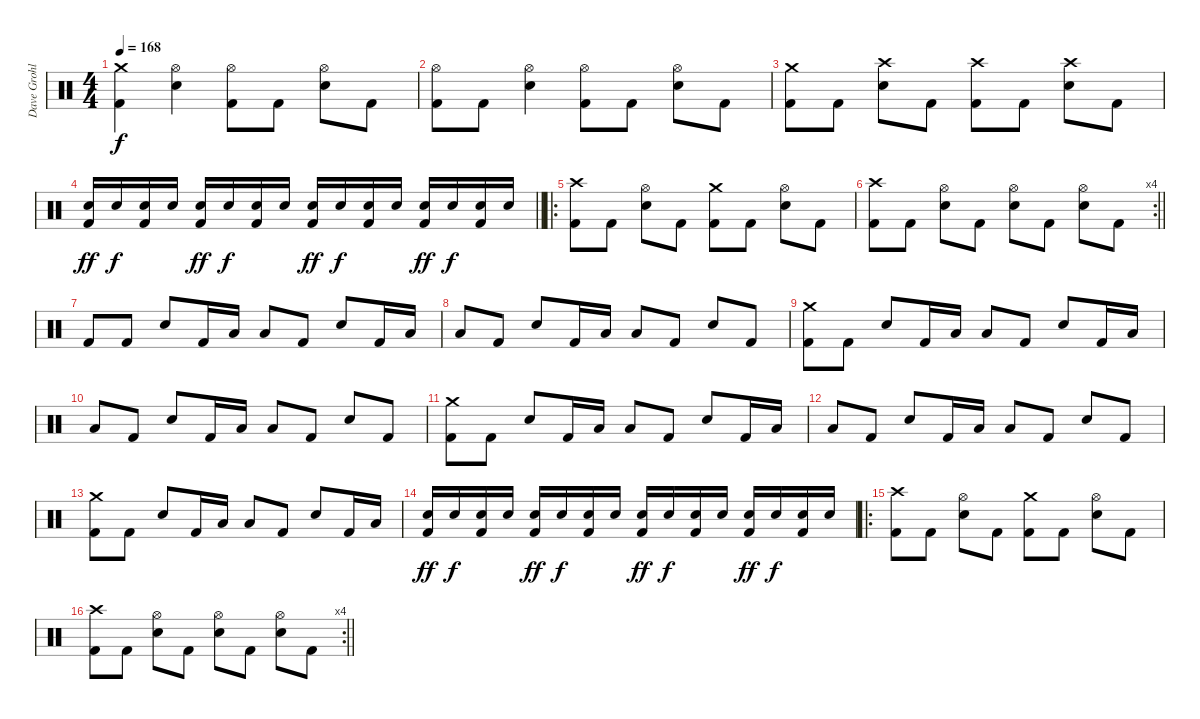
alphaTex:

\track ("Dave Grohl - Drums" "Dave Grohl") {instrument percussion}
\staff {score}
\articulation defaults
\ts (4 4)
\tempo 168
\clef neutral
\ks c
("Crash medium (hit)" "Kick (hit) 2").4{dy f} ("Hi-Hat (open)" "Electric Snare (hit)").4 ("Hi-Hat (open)" "Kick (hit) 2").8 "Kick (hit) 2".8 ("Hi-Hat (open)" "Electric Snare (hit)").8 "Kick (hit) 2".8 |
("Hi-Hat (open)" "Kick (hit) 2").8 "Kick (hit) 2".8 ("Hi-Hat (open)" "Electric Snare (hit)").4 ("Hi-Hat (open)" "Kick (hit) 2").8 "Kick (hit) 2".8 ("Hi-Hat (open)" "Electric Snare (hit)").8 "Kick (hit) 2".8 |
("Crash medium (hit)" "Kick (hit) 2").8 "Kick (hit) 2".8 ("Crash high (hit)" "Electric Snare (hit)").8 "Kick (hit) 2".8 ("Crash high (hit)" "Kick (hit) 2").8 "Kick (hit) 2".8 ("Crash high (hit)" "Electric Snare (hit)").8 "Kick (hit) 2".8 |
\barLineRight lightlight
("Electric Snare (hit)" "Kick (hit) 2").16{dy ff volume 12} "Electric Snare (hit)".16{dy f} ("Electric Snare (hit)" "Kick (hit) 2").16 "Electric Snare (hit)".16 ("Electric Snare (hit)" "Kick (hit) 2").16{dy ff} "Electric Snare (hit)".16{dy f} ("Electric Snare (hit)" "Kick (hit) 2").16 "Electric Snare (hit)".16 ("Electric Snare (hit)" "Kick (hit) 2").16{dy ff} "Electric Snare (hit)".16{dy f} ("Electric Snare (hit)" "Kick (hit) 2").16 "Electric Snare (hit)".16 ("Electric Snare (hit)" "Kick (hit) 2").16{dy ff} "Electric Snare (hit)".16{dy f} ("Electric Snare (hit)" "Kick (hit) 2").16 "Electric Snare (hit)".16 |
\ro
("Crash high (hit)" "Kick (hit) 2").8{volume 13} "Kick (hit) 2".8 ("Hi-Hat (open)" "Electric Snare (hit)").8 "Kick (hit) 2".8 ("Crash medium (hit)" "Kick (hit) 2").8 "Kick (hit) 2".8 ("Hi-Hat (open)" "Electric Snare (hit)").8 "Kick (hit) 2".8 |
\rc 4
\barLineRight lightlight
("Crash high (hit)" "Kick (hit) 2").8{volume 13} "Kick (hit) 2".8 ("Hi-Hat (open)" "Electric Snare (hit)").8 "Kick (hit) 2".8 ("Hi-Hat (open)" "Electric Snare (hit)").8 "Kick (hit) 2".8 ("Hi-Hat (open)" "Electric Snare (hit)").8 "Kick (hit) 2".8 |
"Kick (hit) 2".8 "Kick (hit) 2".8 "Electric Snare (hit)".8 "Kick (hit) 2".16 "Low Floor Tom (hit)".16 "Low Tom (hit)".8 "Kick (hit) 2".8 "Electric Snare (hit)".8 "Kick (hit) 2".16 "Low Floor Tom (hit)".16 |
"Low Tom (hit)".8 "Kick (hit) 2".8 "Electric Snare (hit)".8 "Kick (hit) 2".16 "Low Floor Tom (hit)".16 "Low Tom (hit)".8 "Kick (hit) 2".8 "Electric Snare (hit)".8 "Kick (hit) 2".8 |
("Crash medium (hit)" "Kick (hit) 2").8 "Kick (hit) 2".8 "Electric Snare (hit)".8 "Kick (hit) 2".16 "Low Floor Tom (hit)".16 "Low Tom (hit)".8 "Kick (hit) 2".8 "Electric Snare (hit)".8 "Kick (hit) 2".16 "Low Floor Tom (hit)".16 |
"Low Tom (hit)".8 "Kick (hit) 2".8 "Electric Snare (hit)".8 "Kick (hit) 2".16 "Low Floor Tom (hit)".16 "Low Tom (hit)".8 "Kick (hit) 2".8 "Electric Snare (hit)".8 "Kick (hit) 2".8 |
("Crash medium (hit)" "Kick (hit) 2").8 "Kick (hit) 2".8 "Electric Snare (hit)".8 "Kick (hit) 2".16 "Low Floor Tom (hit)".16 "Low Tom (hit)".8 "Kick (hit) 2".8 "Electric Snare (hit)".8 "Kick (hit) 2".16 "Low Floor Tom (hit)".16 |
"Low Tom (hit)".8 "Kick (hit) 2".8 "Electric Snare (hit)".8 "Kick (hit) 2".16 "Low Floor Tom (hit)".16 "Low Tom (hit)".8 "Kick (hit) 2".8 "Electric Snare (hit)".8 "Kick (hit) 2".8 |
("Crash medium (hit)" "Kick (hit) 2").8 "Kick (hit) 2".8 "Electric Snare (hit)".8 "Kick (hit) 2".16 "Low Floor Tom (hit)".16 "Low Tom (hit)".8 "Kick (hit) 2".8 "Electric Snare (hit)".8 "Kick (hit) 2".16 "Low Floor Tom (hit)".16 |
("Electric Snare (hit)" "Kick (hit) 2").16{dy ff volume 12} "Electric Snare (hit)".16{dy f} ("Electric Snare (hit)" "Kick (hit) 2").16 "Electric Snare (hit)".16 ("Electric Snare (hit)" "Kick (hit) 2").16{dy ff} "Electric Snare (hit)".16{dy f} ("Electric Snare (hit)" "Kick (hit) 2").16 "Electric Snare (hit)".16 ("Electric Snare (hit)" "Kick (hit) 2").16{dy ff} "Electric Snare (hit)".16{dy f} ("Electric Snare (hit)" "Kick (hit) 2").16 "Electric Snare (hit)".16 ("Electric Snare (hit)" "Kick (hit) 2").16{dy ff} "Electric Snare (hit)".16{dy f} ("Electric Snare (hit)" "Kick (hit) 2").16 "Electric Snare (hit)".16 |
\ro
("Crash high (hit)" "Kick (hit) 2").8{volume 13} "Kick (hit) 2".8 ("Hi-Hat (open)" "Electric Snare (hit)").8 "Kick (hit) 2".8 ("Crash medium (hit)" "Kick (hit) 2").8 "Kick (hit) 2".8 ("Hi-Hat (open)" "Electric Snare (hit)").8 "Kick (hit) 2".8 |
\rc 4
\barLineRight lightlight
("Crash high (hit)" "Kick (hit) 2").8{volume 13} "Kick (hit) 2".8 ("Hi-Hat (open)" "Electric Snare (hit)").8 "Kick (hit) 2".8 ("Hi-Hat (open)" "Electric Snare (hit)").8 "Kick (hit) 2".8 ("Hi-Hat (open)" "Electric Snare (hit)").8 "Kick (hit) 2".8
